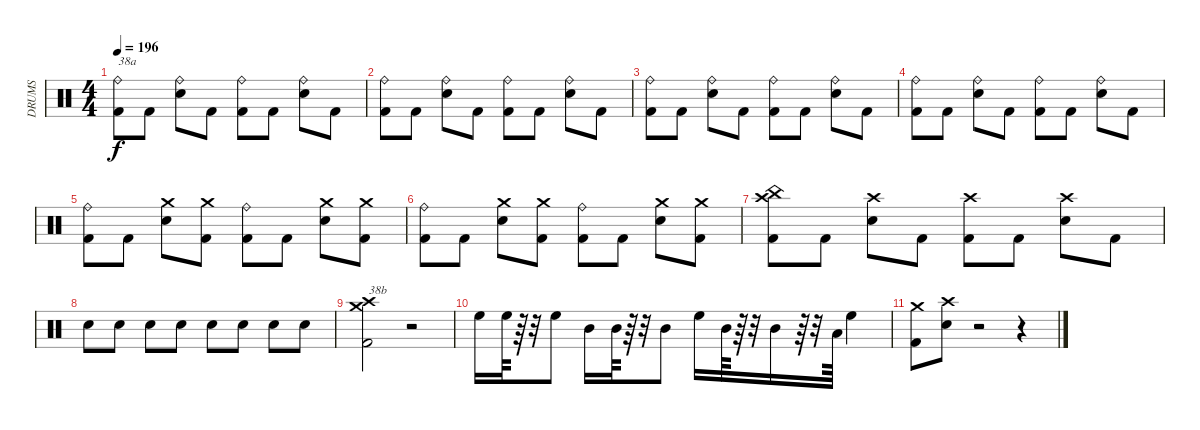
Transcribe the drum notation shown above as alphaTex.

\track ("DRUMS" "DRUMS") {instrument percussion}
\staff {score}
\articulation defaults
\ts (4 4)
\tempo 196
\clef neutral
\ks c
("Ride (bell)" "Kick (hit) 2").8{txt "38a" dy f} "Kick (hit) 2".8 ("Ride (bell)" "Snare (hit) 2").8 "Kick (hit) 2".8 ("Ride (bell)" "Kick (hit) 2").8 "Kick (hit) 2".8 ("Ride (bell)" "Snare (hit) 2").8 "Kick (hit) 2".8 |
("Ride (bell)" "Kick (hit) 2").8 "Kick (hit) 2".8 ("Ride (bell)" "Snare (hit) 2").8 "Kick (hit) 2".8 ("Ride (bell)" "Kick (hit) 2").8 "Kick (hit) 2".8 ("Ride (bell)" "Snare (hit) 2").8 "Kick (hit) 2".8 |
("Ride (bell)" "Kick (hit) 2").8 "Kick (hit) 2".8 ("Ride (bell)" "Snare (hit) 2").8 "Kick (hit) 2".8 ("Ride (bell)" "Kick (hit) 2").8 "Kick (hit) 2".8 ("Ride (bell)" "Snare (hit) 2").8 "Kick (hit) 2".8 |
("Ride (bell)" "Kick (hit) 2").8 "Kick (hit) 2".8 ("Ride (bell)" "Snare (hit) 2").8 "Kick (hit) 2".8 ("Ride (bell)" "Kick (hit) 2").8 "Kick (hit) 2".8 ("Ride (bell)" "Snare (hit) 2").8 "Kick (hit) 2".8 |
("Ride (bell)" "Kick (hit) 2").8 "Kick (hit) 2".8 ("Crash medium (hit)" "Snare (hit) 2").8 ("Crash medium (hit)" "Kick (hit) 2").8 ("Ride (bell)" "Kick (hit) 2").8 "Kick (hit) 2".8 ("Crash medium (hit)" "Snare (hit) 2").8 ("Crash medium (hit)" "Kick (hit) 2").8 |
("Ride (bell)" "Kick (hit) 2").8 "Kick (hit) 2".8 ("Crash medium (hit)" "Snare (hit) 2").8 ("Crash medium (hit)" "Kick (hit) 2").8 ("Ride (bell)" "Kick (hit) 2").8 "Kick (hit) 2".8 ("Crash medium (hit)" "Snare (hit) 2").8 ("Crash medium (hit)" "Kick (hit) 2").8 |
("Crash high (hit)" "China (hit)" "Kick (hit) 2").8 "Kick (hit) 2".8 ("Crash high (hit)" "Snare (hit) 2").8 "Kick (hit) 2".8 ("Crash high (hit)" "Kick (hit) 2").8 "Kick (hit) 2".8 ("Crash high (hit)" "Snare (hit) 2").8 "Kick (hit) 2".8 |
"Snare (hit) 2".8 "Snare (hit) 2".8 "Snare (hit) 2".8 "Snare (hit) 2".8 "Snare (hit) 2".8 "Snare (hit) 2".8 "Snare (hit) 2".8 "Snare (hit) 2".8 |
("Crash medium (hit)" "Crash high (hit)" "Kick (hit) 2").2{txt "38b"} r.2 |
"High Floor Tom (hit)".16 "High Floor Tom (hit)".64 r.64 r.32 "High Floor Tom (hit)".8 "Mid Tom (hit)".16 "Mid Tom (hit)".64 r.64 r.32 "Mid Tom (hit)".8 "High Floor Tom (hit)".16 "Mid Tom (hit)".64 r.64 r.32 "Mid Tom (hit)".16 r.64 r.32 "Low Tom (hit)".64 "High Floor Tom (hit)".4 |
("Crash medium (hit)" "Kick (hit) 2").8 ("Crash high (hit)" "Snare (hit) 2").8 r.2 r.4
